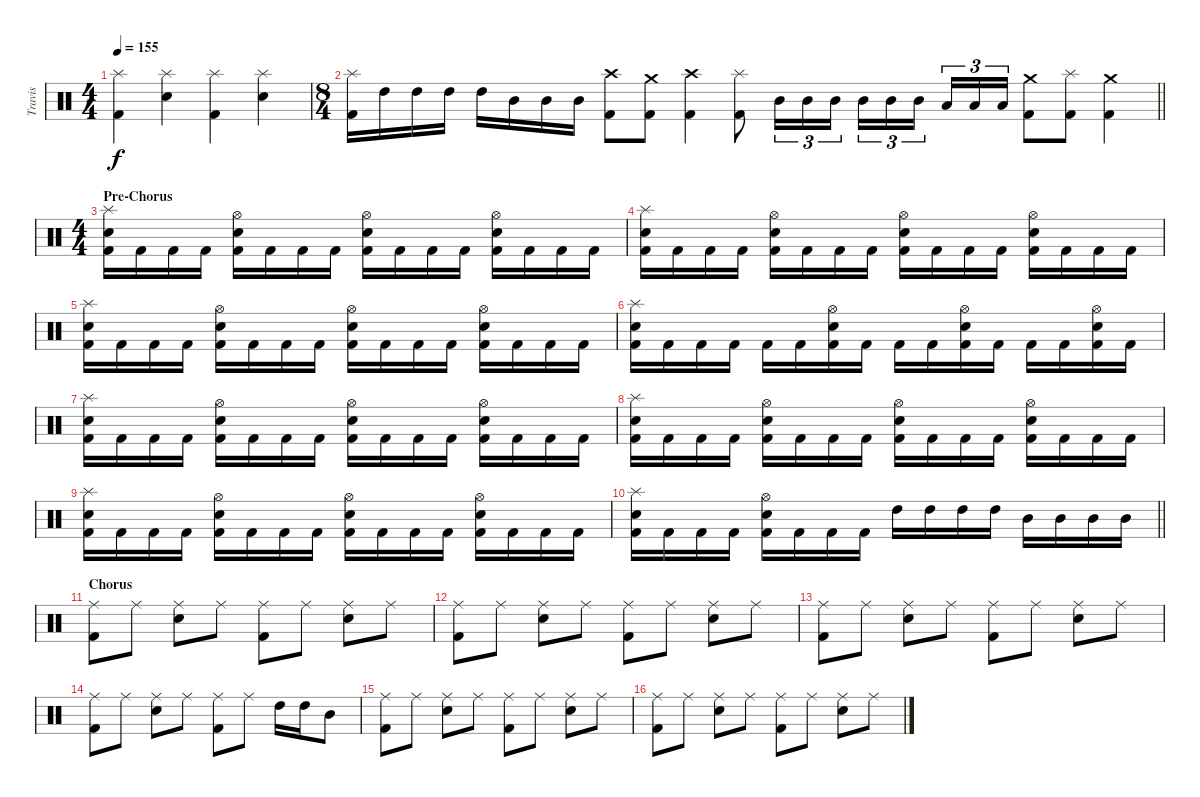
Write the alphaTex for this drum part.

\track ("Travis" "Travis") {instrument percussion}
\staff {score}
\articulation defaults
\ts (4 4)
\tempo 155
\clef neutral
\ks c
("Splash (hit)" "Kick (hit) 2").4{dy f} ("Splash (hit)" "Snare (hit) 2").4 ("Splash (hit)" "Kick (hit) 2").4 ("Splash (hit)" "Snare (hit) 2").4 |
\ts (8 4)
\barLineRight lightlight
("Splash (hit)" "Kick (hit) 2").16 "High Tom (hit)".16 "High Tom (hit)".16 "High Tom (hit)".16 "High Tom (hit)".16 "Mid Tom (hit)".16 "Mid Tom (hit)".16 "Mid Tom (hit)".16 ("Crash high (hit)" "Kick (hit) 2").8 ("Crash medium (hit)" "Kick (hit) 2").8 ("Crash high (hit)" "Kick (hit) 2").4 ("Splash (hit)" "Kick (hit) 2").8 "Mid Tom (hit)".16{tu (3 2)} "Mid Tom (hit)".16{tu (3 2)} "Mid Tom (hit)".16{tu (3 2)} "Mid Tom (hit)".16{tu (3 2)} "Mid Tom (hit)".16{tu (3 2)} "Mid Tom (hit)".16{tu (3 2)} "Low Tom (hit)".16{tu (3 2)} "Low Tom (hit)".16{tu (3 2)} "Low Tom (hit)".16{tu (3 2)} ("Crash medium (hit)" "Kick (hit) 2").8 ("Splash (hit)" "Kick (hit) 2").8 ("Crash medium (hit)" "Kick (hit) 2").4 |
\ts (4 4)
\section ("" "Pre-Chorus")
("Splash (hit)" "Snare (hit) 2" "Kick (hit) 2").16 "Kick (hit) 2".16 "Kick (hit) 2".16 "Kick (hit) 2".16 ("Hi-Hat (open)" "Snare (hit) 2" "Kick (hit) 2").16 "Kick (hit) 2".16 "Kick (hit) 2".16 "Kick (hit) 2".16 ("Hi-Hat (open)" "Snare (hit) 2" "Kick (hit) 2").16 "Kick (hit) 2".16 "Kick (hit) 2".16 "Kick (hit) 2".16 ("Hi-Hat (open)" "Snare (hit) 2" "Kick (hit) 2").16 "Kick (hit) 2".16 "Kick (hit) 2".16 "Kick (hit) 2".16 |
("Splash (hit)" "Snare (hit) 2" "Kick (hit) 2").16 "Kick (hit) 2".16 "Kick (hit) 2".16 "Kick (hit) 2".16 ("Hi-Hat (open)" "Snare (hit) 2" "Kick (hit) 2").16 "Kick (hit) 2".16 "Kick (hit) 2".16 "Kick (hit) 2".16 ("Hi-Hat (open)" "Snare (hit) 2" "Kick (hit) 2").16 "Kick (hit) 2".16 "Kick (hit) 2".16 "Kick (hit) 2".16 ("Hi-Hat (open)" "Snare (hit) 2" "Kick (hit) 2").16 "Kick (hit) 2".16 "Kick (hit) 2".16 "Kick (hit) 2".16 |
("Splash (hit)" "Snare (hit) 2" "Kick (hit) 2").16 "Kick (hit) 2".16 "Kick (hit) 2".16 "Kick (hit) 2".16 ("Hi-Hat (open)" "Snare (hit) 2" "Kick (hit) 2").16 "Kick (hit) 2".16 "Kick (hit) 2".16 "Kick (hit) 2".16 ("Hi-Hat (open)" "Snare (hit) 2" "Kick (hit) 2").16 "Kick (hit) 2".16 "Kick (hit) 2".16 "Kick (hit) 2".16 ("Hi-Hat (open)" "Snare (hit) 2" "Kick (hit) 2").16 "Kick (hit) 2".16 "Kick (hit) 2".16 "Kick (hit) 2".16 |
("Splash (hit)" "Snare (hit) 2" "Kick (hit) 2").16 "Kick (hit) 2".16 "Kick (hit) 2".16 "Kick (hit) 2".16 "Kick (hit) 2".16 "Kick (hit) 2".16 ("Hi-Hat (open)" "Snare (hit) 2" "Kick (hit) 2").16 "Kick (hit) 2".16 "Kick (hit) 2".16 "Kick (hit) 2".16 ("Hi-Hat (open)" "Snare (hit) 2" "Kick (hit) 2").16 "Kick (hit) 2".16 "Kick (hit) 2".16 "Kick (hit) 2".16 ("Hi-Hat (open)" "Snare (hit) 2" "Kick (hit) 2").16 "Kick (hit) 2".16 |
("Splash (hit)" "Snare (hit) 2" "Kick (hit) 2").16 "Kick (hit) 2".16 "Kick (hit) 2".16 "Kick (hit) 2".16 ("Hi-Hat (open)" "Snare (hit) 2" "Kick (hit) 2").16 "Kick (hit) 2".16 "Kick (hit) 2".16 "Kick (hit) 2".16 ("Hi-Hat (open)" "Snare (hit) 2" "Kick (hit) 2").16 "Kick (hit) 2".16 "Kick (hit) 2".16 "Kick (hit) 2".16 ("Hi-Hat (open)" "Snare (hit) 2" "Kick (hit) 2").16 "Kick (hit) 2".16 "Kick (hit) 2".16 "Kick (hit) 2".16 |
("Splash (hit)" "Snare (hit) 2" "Kick (hit) 2").16 "Kick (hit) 2".16 "Kick (hit) 2".16 "Kick (hit) 2".16 ("Hi-Hat (open)" "Snare (hit) 2" "Kick (hit) 2").16 "Kick (hit) 2".16 "Kick (hit) 2".16 "Kick (hit) 2".16 ("Hi-Hat (open)" "Snare (hit) 2" "Kick (hit) 2").16 "Kick (hit) 2".16 "Kick (hit) 2".16 "Kick (hit) 2".16 ("Hi-Hat (open)" "Snare (hit) 2" "Kick (hit) 2").16 "Kick (hit) 2".16 "Kick (hit) 2".16 "Kick (hit) 2".16 |
("Splash (hit)" "Snare (hit) 2" "Kick (hit) 2").16 "Kick (hit) 2".16 "Kick (hit) 2".16 "Kick (hit) 2".16 ("Hi-Hat (open)" "Snare (hit) 2" "Kick (hit) 2").16 "Kick (hit) 2".16 "Kick (hit) 2".16 "Kick (hit) 2".16 ("Hi-Hat (open)" "Snare (hit) 2" "Kick (hit) 2").16 "Kick (hit) 2".16 "Kick (hit) 2".16 "Kick (hit) 2".16 ("Hi-Hat (open)" "Snare (hit) 2" "Kick (hit) 2").16 "Kick (hit) 2".16 "Kick (hit) 2".16 "Kick (hit) 2".16 |
\barLineRight lightlight
("Splash (hit)" "Snare (hit) 2" "Kick (hit) 2").16 "Kick (hit) 2".16 "Kick (hit) 2".16 "Kick (hit) 2".16 ("Hi-Hat (open)" "Snare (hit) 2" "Kick (hit) 2").16 "Kick (hit) 2".16 "Kick (hit) 2".16 "Kick (hit) 2".16 "High Tom (hit)".16 "High Tom (hit)".16 "High Tom (hit)".16 "High Tom (hit)".16 "Mid Tom (hit)".16 "Mid Tom (hit)".16 "Mid Tom (hit)".16 "Mid Tom (hit)".16 |
\section ("" "Chorus")
("Ride (middle)" "Kick (hit) 2").8 "Ride (middle)".8 ("Ride (middle)" "Snare (hit) 2").8 "Ride (middle)".8 ("Ride (middle)" "Kick (hit) 2").8 "Ride (middle)".8 ("Ride (middle)" "Snare (hit) 2").8 "Ride (middle)".8 |
("Ride (middle)" "Kick (hit) 2").8 "Ride (middle)".8 ("Ride (middle)" "Snare (hit) 2").8 "Ride (middle)".8 ("Ride (middle)" "Kick (hit) 2").8 "Ride (middle)".8 ("Ride (middle)" "Snare (hit) 2").8 "Ride (middle)".8 |
("Ride (middle)" "Kick (hit) 2").8 "Ride (middle)".8 ("Ride (middle)" "Snare (hit) 2").8 "Ride (middle)".8 ("Ride (middle)" "Kick (hit) 2").8 "Ride (middle)".8 ("Ride (middle)" "Snare (hit) 2").8 "Ride (middle)".8 |
("Ride (middle)" "Kick (hit) 2").8 "Ride (middle)".8 ("Ride (middle)" "Snare (hit) 2").8 "Ride (middle)".8 ("Ride (middle)" "Kick (hit) 2").8 "Ride (middle)".8 "High Tom (hit)".16 "High Tom (hit)".16 "Mid Tom (hit)".8 |
("Ride (middle)" "Kick (hit) 2").8 "Ride (middle)".8 ("Ride (middle)" "Snare (hit) 2").8 "Ride (middle)".8 ("Ride (middle)" "Kick (hit) 2").8 "Ride (middle)".8 ("Ride (middle)" "Snare (hit) 2").8 "Ride (middle)".8 |
("Ride (middle)" "Kick (hit) 2").8 "Ride (middle)".8 ("Ride (middle)" "Snare (hit) 2").8 "Ride (middle)".8 ("Ride (middle)" "Kick (hit) 2").8 "Ride (middle)".8 ("Ride (middle)" "Snare (hit) 2").8 "Ride (middle)".8
